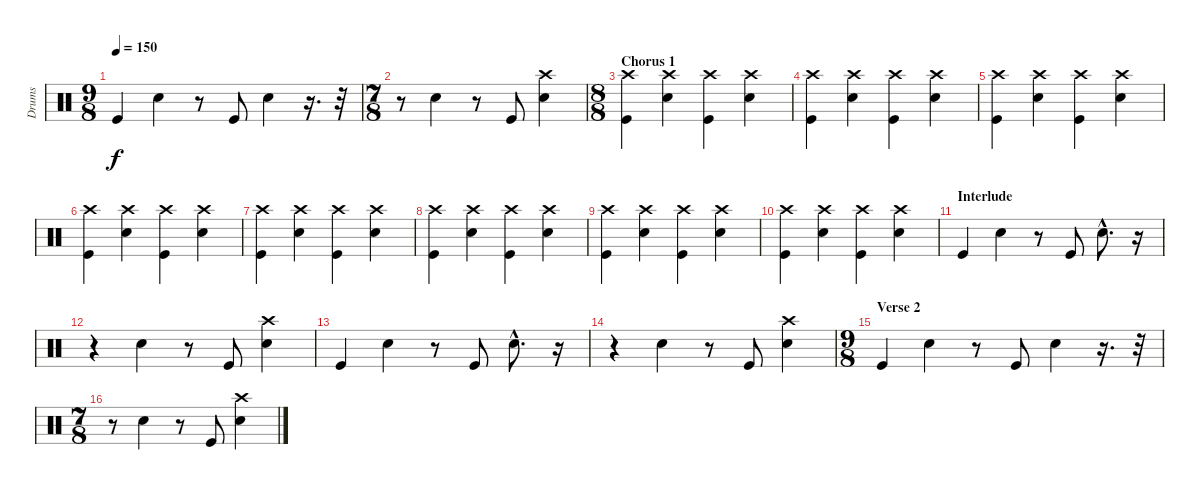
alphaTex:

\track ("Drums" "Drums") {instrument percussion}
\staff {score}
\articulation defaults
\ts (9 8)
\tempo 150
\clef neutral
\ks c "Kick (hit)".4{dy f} "Snare (hit) 2".4
r.8 "Kick (hit)".8 "Snare (hit) 2".4 r.16{d} r.32 |
\ts (7 8)
r.8 "Snare (hit) 2".4 r.8 "Kick (hit)".8 ("Crash high (hit)" "Snare (hit) 2").4 |
\ts (8 8)
\section ("" "Chorus 1")
("Crash high (hit)" "Kick (hit)").4 ("Crash high (hit)" "Snare (hit) 2").4 ("Crash high (hit)" "Kick (hit)").4 ("Crash high (hit)" "Snare (hit) 2").4 |
("Crash high (hit)" "Kick (hit)").4 ("Crash high (hit)" "Snare (hit) 2").4 ("Crash high (hit)" "Kick (hit)").4 ("Crash high (hit)" "Snare (hit) 2").4 |
("Crash high (hit)" "Kick (hit)").4 ("Crash high (hit)" "Snare (hit) 2").4 ("Crash high (hit)" "Kick (hit)").4 ("Crash high (hit)" "Snare (hit) 2").4 |
("Crash high (hit)" "Kick (hit)").4 ("Crash high (hit)" "Snare (hit) 2").4 ("Crash high (hit)" "Kick (hit)").4 ("Crash high (hit)" "Snare (hit) 2").4 |
("Crash high (hit)" "Kick (hit)").4 ("Crash high (hit)" "Snare (hit) 2").4 ("Crash high (hit)" "Kick (hit)").4 ("Crash high (hit)" "Snare (hit) 2").4 |
("Crash high (hit)" "Kick (hit)").4 ("Crash high (hit)" "Snare (hit) 2").4 ("Crash high (hit)" "Kick (hit)").4 ("Crash high (hit)" "Snare (hit) 2").4 |
("Crash high (hit)" "Kick (hit)").4 ("Crash high (hit)" "Snare (hit) 2").4 ("Crash high (hit)" "Kick (hit)").4 ("Crash high (hit)" "Snare (hit) 2").4 |
("Crash high (hit)" "Kick (hit)").4 ("Crash high (hit)" "Snare (hit) 2").4 ("Crash high (hit)" "Kick (hit)").4 ("Crash high (hit)" "Snare (hit) 2").4 |
\section ("" "Interlude")
"Kick (hit)".4 "Snare (hit) 2".4 r.8 "Kick (hit)".8 "Snare (hit) 2"{hac}.8{d} r.16 |
r.4 "Snare (hit) 2".4 r.8 "Kick (hit)".8 ("Crash high (hit)" "Snare (hit) 2").4 |
"Kick (hit)".4 "Snare (hit) 2".4 r.8 "Kick (hit)".8 "Snare (hit) 2"{hac}.8{d} r.16 |
r.4 "Snare (hit) 2".4 r.8 "Kick (hit)".8 ("Crash high (hit)" "Snare (hit) 2").4 |
\ts (9 8)
\section ("" "Verse 2")
"Kick (hit)".4 "Snare (hit) 2".4 r.8 "Kick (hit)".8 "Snare (hit) 2".4 r.16{d} r.32 |
\ts (7 8)
r.8 "Snare (hit) 2".4 r.8 "Kick (hit)".8 ("Crash high (hit)" "Snare (hit) 2").4
